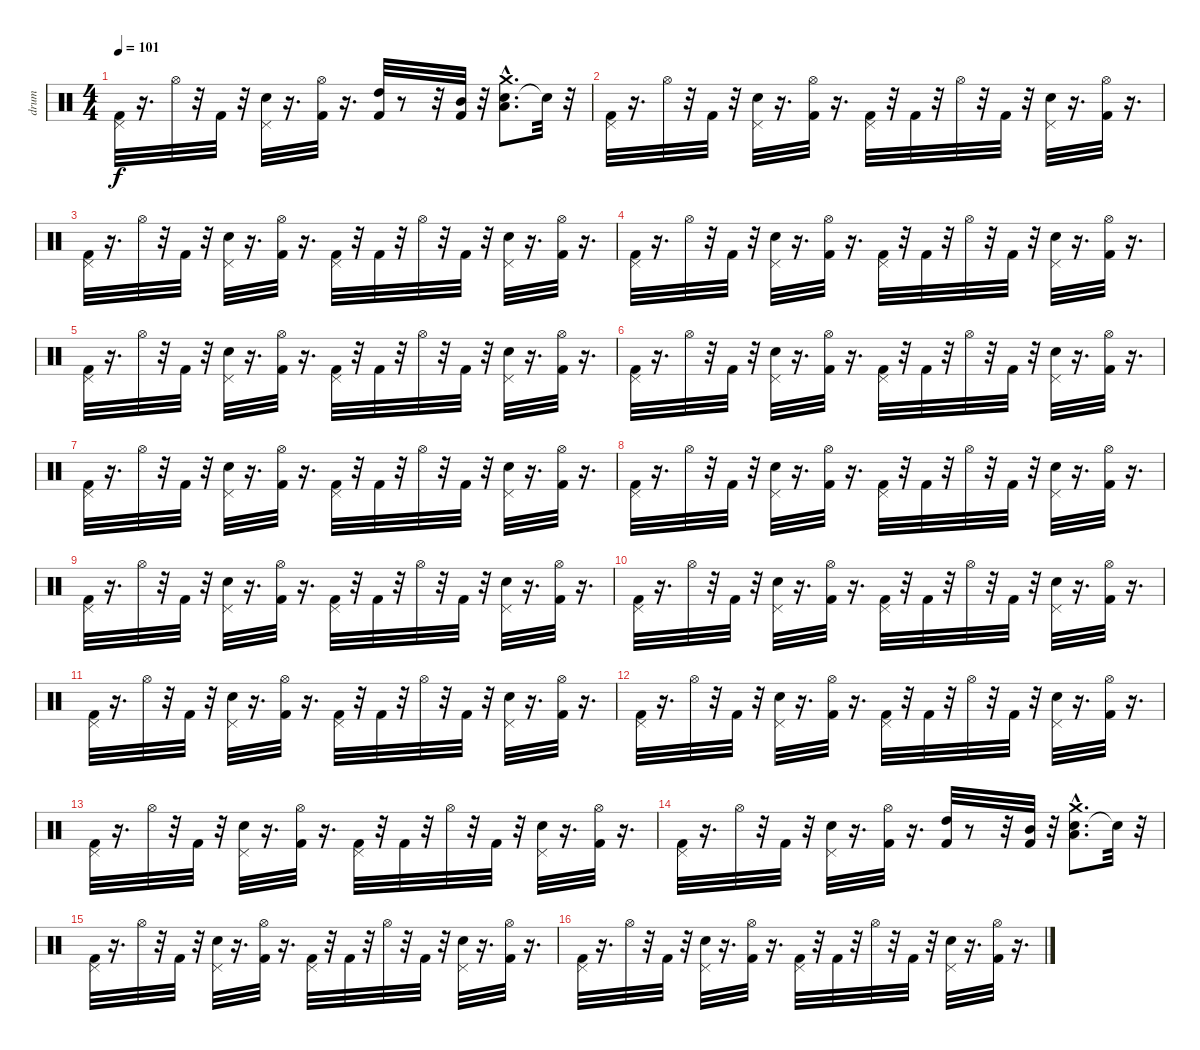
\track ("drum" "drum") {instrument percussion}
\staff {score}
\articulation defaults
\ts (4 4)
\tempo 101
\clef neutral
\ks c
("Kick (hit) 2" "Pedal Hi-Hat (hit)").32{dy f} r.16{d} "Hi-Hat (open)".32 r.32 "Kick (hit) 2".32 r.32 ("Electric Snare (hit)" "Pedal Hi-Hat (hit)").32 r.16{d} ("Kick (hit) 2" "Hi-Hat (open)").32 r.16{d} ("Kick (hit) 2" "High Tom (hit)").32 r.8 r.32 ("Kick (hit) 2" "Mid Tom (hit)").32 r.32 ("Electric Snare (hit)" "Low Tom (hit)" "Crash medium (hit)"{hac}).8{d} "Snare (hit)"{t}.32 r.32 |
("Kick (hit) 2" "Pedal Hi-Hat (hit)").32 r.16{d} "Hi-Hat (open)".32 r.32 "Kick (hit) 2".32 r.32 ("Electric Snare (hit)" "Pedal Hi-Hat (hit)").32 r.16{d} ("Kick (hit) 2" "Hi-Hat (open)").32 r.16{d} ("Kick (hit) 2" "Pedal Hi-Hat (hit)").32 r.32 "Kick (hit) 2".32 r.32 "Hi-Hat (open)".32 r.32 "Kick (hit) 2".32 r.32 ("Electric Snare (hit)" "Pedal Hi-Hat (hit)").32 r.16{d} ("Kick (hit) 2" "Hi-Hat (open)").32 r.16{d} |
("Kick (hit) 2" "Pedal Hi-Hat (hit)").32 r.16{d} "Hi-Hat (open)".32 r.32 "Kick (hit) 2".32 r.32 ("Electric Snare (hit)" "Pedal Hi-Hat (hit)").32 r.16{d} ("Kick (hit) 2" "Hi-Hat (open)").32 r.16{d} ("Kick (hit) 2" "Pedal Hi-Hat (hit)").32 r.32 "Kick (hit) 2".32 r.32 "Hi-Hat (open)".32 r.32 "Kick (hit) 2".32 r.32 ("Electric Snare (hit)" "Pedal Hi-Hat (hit)").32 r.16{d} ("Kick (hit) 2" "Hi-Hat (open)").32 r.16{d} |
("Kick (hit) 2" "Pedal Hi-Hat (hit)").32 r.16{d} "Hi-Hat (open)".32 r.32 "Kick (hit) 2".32 r.32 ("Electric Snare (hit)" "Pedal Hi-Hat (hit)").32 r.16{d} ("Kick (hit) 2" "Hi-Hat (open)").32 r.16{d} ("Kick (hit) 2" "Pedal Hi-Hat (hit)").32 r.32 "Kick (hit) 2".32 r.32 "Hi-Hat (open)".32 r.32 "Kick (hit) 2".32 r.32 ("Electric Snare (hit)" "Pedal Hi-Hat (hit)").32 r.16{d} ("Kick (hit) 2" "Hi-Hat (open)").32 r.16{d} |
("Kick (hit) 2" "Pedal Hi-Hat (hit)").32 r.16{d} "Hi-Hat (open)".32 r.32 "Kick (hit) 2".32 r.32 ("Electric Snare (hit)" "Pedal Hi-Hat (hit)").32 r.16{d} ("Kick (hit) 2" "Hi-Hat (open)").32 r.16{d} ("Kick (hit) 2" "Pedal Hi-Hat (hit)").32 r.32 "Kick (hit) 2".32 r.32 "Hi-Hat (open)".32 r.32 "Kick (hit) 2".32 r.32 ("Electric Snare (hit)" "Pedal Hi-Hat (hit)").32 r.16{d} ("Kick (hit) 2" "Hi-Hat (open)").32 r.16{d} |
("Kick (hit) 2" "Pedal Hi-Hat (hit)").32 r.16{d} "Hi-Hat (open)".32 r.32 "Kick (hit) 2".32 r.32 ("Electric Snare (hit)" "Pedal Hi-Hat (hit)").32 r.16{d} ("Kick (hit) 2" "Hi-Hat (open)").32 r.16{d} ("Kick (hit) 2" "Pedal Hi-Hat (hit)").32 r.32 "Kick (hit) 2".32 r.32 "Hi-Hat (open)".32 r.32 "Kick (hit) 2".32 r.32 ("Electric Snare (hit)" "Pedal Hi-Hat (hit)").32 r.16{d} ("Kick (hit) 2" "Hi-Hat (open)").32 r.16{d} |
("Kick (hit) 2" "Pedal Hi-Hat (hit)").32 r.16{d} "Hi-Hat (open)".32 r.32 "Kick (hit) 2".32 r.32 ("Electric Snare (hit)" "Pedal Hi-Hat (hit)").32 r.16{d} ("Kick (hit) 2" "Hi-Hat (open)").32 r.16{d} ("Kick (hit) 2" "Pedal Hi-Hat (hit)").32 r.32 "Kick (hit) 2".32 r.32 "Hi-Hat (open)".32 r.32 "Kick (hit) 2".32 r.32 ("Electric Snare (hit)" "Pedal Hi-Hat (hit)").32 r.16{d} ("Kick (hit) 2" "Hi-Hat (open)").32 r.16{d} |
("Kick (hit) 2" "Pedal Hi-Hat (hit)").32 r.16{d} "Hi-Hat (open)".32 r.32 "Kick (hit) 2".32 r.32 ("Electric Snare (hit)" "Pedal Hi-Hat (hit)").32 r.16{d} ("Kick (hit) 2" "Hi-Hat (open)").32 r.16{d} ("Kick (hit) 2" "Pedal Hi-Hat (hit)").32 r.32 "Kick (hit) 2".32 r.32 "Hi-Hat (open)".32 r.32 "Kick (hit) 2".32 r.32 ("Electric Snare (hit)" "Pedal Hi-Hat (hit)").32 r.16{d} ("Kick (hit) 2" "Hi-Hat (open)").32 r.16{d} |
("Kick (hit) 2" "Pedal Hi-Hat (hit)").32 r.16{d} "Hi-Hat (open)".32 r.32 "Kick (hit) 2".32 r.32 ("Electric Snare (hit)" "Pedal Hi-Hat (hit)").32 r.16{d} ("Kick (hit) 2" "Hi-Hat (open)").32 r.16{d} ("Kick (hit) 2" "Pedal Hi-Hat (hit)").32 r.32 "Kick (hit) 2".32 r.32 "Hi-Hat (open)".32 r.32 "Kick (hit) 2".32 r.32 ("Electric Snare (hit)" "Pedal Hi-Hat (hit)").32 r.16{d} ("Kick (hit) 2" "Hi-Hat (open)").32 r.16{d} |
("Kick (hit) 2" "Pedal Hi-Hat (hit)").32 r.16{d} "Hi-Hat (open)".32 r.32 "Kick (hit) 2".32 r.32 ("Electric Snare (hit)" "Pedal Hi-Hat (hit)").32 r.16{d} ("Kick (hit) 2" "Hi-Hat (open)").32 r.16{d} ("Kick (hit) 2" "Pedal Hi-Hat (hit)").32 r.32 "Kick (hit) 2".32 r.32 "Hi-Hat (open)".32 r.32 "Kick (hit) 2".32 r.32 ("Electric Snare (hit)" "Pedal Hi-Hat (hit)").32 r.16{d} ("Kick (hit) 2" "Hi-Hat (open)").32 r.16{d} |
("Kick (hit) 2" "Pedal Hi-Hat (hit)").32 r.16{d} "Hi-Hat (open)".32 r.32 "Kick (hit) 2".32 r.32 ("Electric Snare (hit)" "Pedal Hi-Hat (hit)").32 r.16{d} ("Kick (hit) 2" "Hi-Hat (open)").32 r.16{d} ("Kick (hit) 2" "Pedal Hi-Hat (hit)").32 r.32 "Kick (hit) 2".32 r.32 "Hi-Hat (open)".32 r.32 "Kick (hit) 2".32 r.32 ("Electric Snare (hit)" "Pedal Hi-Hat (hit)").32 r.16{d} ("Kick (hit) 2" "Hi-Hat (open)").32 r.16{d} |
("Kick (hit) 2" "Pedal Hi-Hat (hit)").32 r.16{d} "Hi-Hat (open)".32 r.32 "Kick (hit) 2".32 r.32 ("Electric Snare (hit)" "Pedal Hi-Hat (hit)").32 r.16{d} ("Kick (hit) 2" "Hi-Hat (open)").32 r.16{d} ("Kick (hit) 2" "Pedal Hi-Hat (hit)").32 r.32 "Kick (hit) 2".32 r.32 "Hi-Hat (open)".32 r.32 "Kick (hit) 2".32 r.32 ("Electric Snare (hit)" "Pedal Hi-Hat (hit)").32 r.16{d} ("Kick (hit) 2" "Hi-Hat (open)").32 r.16{d} |
("Kick (hit) 2" "Pedal Hi-Hat (hit)").32 r.16{d} "Hi-Hat (open)".32 r.32 "Kick (hit) 2".32 r.32 ("Electric Snare (hit)" "Pedal Hi-Hat (hit)").32 r.16{d} ("Kick (hit) 2" "Hi-Hat (open)").32 r.16{d} ("Kick (hit) 2" "Pedal Hi-Hat (hit)").32 r.32 "Kick (hit) 2".32 r.32 "Hi-Hat (open)".32 r.32 "Kick (hit) 2".32 r.32 ("Electric Snare (hit)" "Pedal Hi-Hat (hit)").32 r.16{d} ("Kick (hit) 2" "Hi-Hat (open)").32 r.16{d} |
("Kick (hit) 2" "Pedal Hi-Hat (hit)").32 r.16{d} "Hi-Hat (open)".32 r.32 "Kick (hit) 2".32 r.32 ("Electric Snare (hit)" "Pedal Hi-Hat (hit)").32 r.16{d} ("Kick (hit) 2" "Hi-Hat (open)").32 r.16{d} ("Kick (hit) 2" "High Tom (hit)").32 r.8 r.32 ("Kick (hit) 2" "Mid Tom (hit)").32 r.32 ("Electric Snare (hit)" "Low Tom (hit)" "Crash medium (hit)"{hac}).8{d} "Snare (hit)"{t}.32 r.32 |
("Kick (hit) 2" "Pedal Hi-Hat (hit)").32 r.16{d} "Hi-Hat (open)".32 r.32 "Kick (hit) 2".32 r.32 ("Electric Snare (hit)" "Pedal Hi-Hat (hit)").32 r.16{d} ("Kick (hit) 2" "Hi-Hat (open)").32 r.16{d} ("Kick (hit) 2" "Pedal Hi-Hat (hit)").32 r.32 "Kick (hit) 2".32 r.32 "Hi-Hat (open)".32 r.32 "Kick (hit) 2".32 r.32 ("Electric Snare (hit)" "Pedal Hi-Hat (hit)").32 r.16{d} ("Kick (hit) 2" "Hi-Hat (open)").32 r.16{d} |
("Kick (hit) 2" "Pedal Hi-Hat (hit)").32 r.16{d} "Hi-Hat (open)".32 r.32 "Kick (hit) 2".32 r.32 ("Electric Snare (hit)" "Pedal Hi-Hat (hit)").32 r.16{d} ("Kick (hit) 2" "Hi-Hat (open)").32 r.16{d} ("Kick (hit) 2" "Pedal Hi-Hat (hit)").32 r.32 "Kick (hit) 2".32 r.32 "Hi-Hat (open)".32 r.32 "Kick (hit) 2".32 r.32 ("Electric Snare (hit)" "Pedal Hi-Hat (hit)").32 r.16{d} ("Kick (hit) 2" "Hi-Hat (open)").32 r.16{d}
